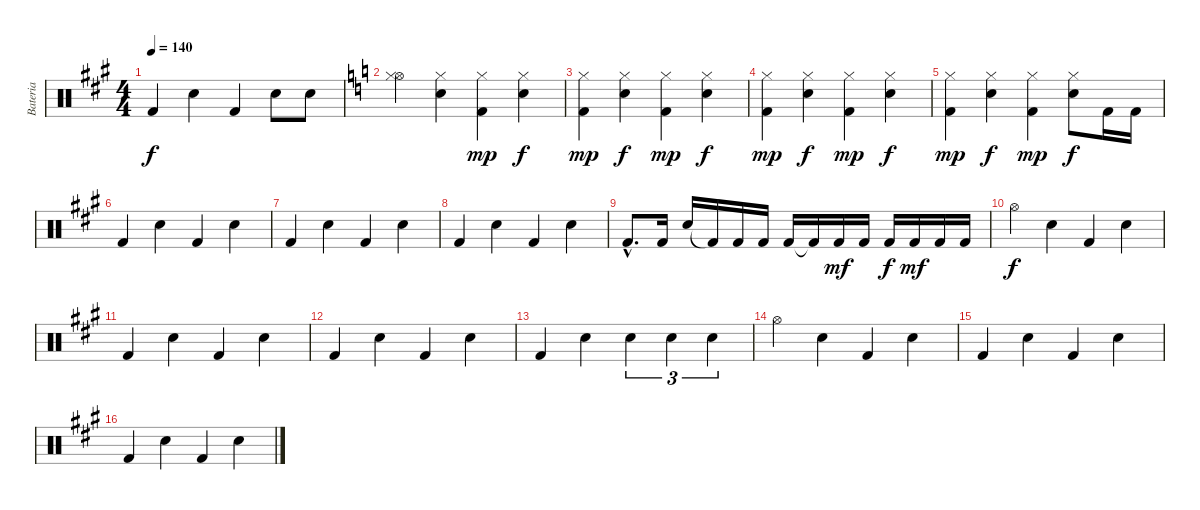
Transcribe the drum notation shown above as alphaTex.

\track ("Bateria" "Bateria") {instrument percussion}
\staff {score}
\articulation defaults
\ts (4 4)
\tempo 140
\clef neutral
\ks a "Kick (hit) 2".4{dy f} "Electric Snare (hit)".4 "Kick (hit) 2".4 "Electric Snare (hit)".8 "Electric Snare (hit)".8
|
\ks c
("Hi-Hat (open)" "Hi-Hat (closed)").4 ("Electric Snare (hit)" "Hi-Hat (closed)").4 ("Kick (hit) 2" "Hi-Hat (closed)").4{dy mp} ("Electric Snare (hit)" "Hi-Hat (closed)").4{dy f} |
("Kick (hit) 2" "Hi-Hat (closed)").4{dy mp} ("Electric Snare (hit)" "Hi-Hat (closed)").4{dy f} ("Kick (hit) 2" "Hi-Hat (closed)").4{dy mp} ("Electric Snare (hit)" "Hi-Hat (closed)").4{dy f} |
("Kick (hit) 2" "Hi-Hat (closed)").4{dy mp} ("Electric Snare (hit)" "Hi-Hat (closed)").4{dy f} ("Kick (hit) 2" "Hi-Hat (closed)").4{dy mp} ("Electric Snare (hit)" "Hi-Hat (closed)").4{dy f} |
("Kick (hit) 2" "Hi-Hat (closed)").4{dy mp} ("Electric Snare (hit)" "Hi-Hat (closed)").4{dy f} ("Kick (hit) 2" "Hi-Hat (closed)").4{dy mp} ("Electric Snare (hit)" "Hi-Hat (closed)").8{dy f} "Kick (hit) 2".16 "Kick (hit) 2".16 |
\ks a "Kick (hit) 2".4 "Electric Snare (hit)".4 "Kick (hit) 2".4 "Electric Snare (hit)".4
|
"Kick (hit) 2".4 "Electric Snare (hit)".4 "Kick (hit) 2".4 "Electric Snare (hit)".4 |
"Kick (hit) 2".4 "Electric Snare (hit)".4 "Kick (hit) 2".4 "Electric Snare (hit)".4 |
"Kick (hit) 2"{hac}.8{d} "Kick (hit) 2".16 "Electric Snare (hit)".16 "Kick (hit) 2"{t}.16 "Kick (hit) 2".16 "Kick (hit) 2".16 "Kick (hit) 2".16 "Kick (hit) 2"{t}.16 "Kick (hit) 2".16{dy mf} "Kick (hit) 2".16 "Kick (hit) 2".16{dy f} "Kick (hit) 2".16{dy mf} "Kick (hit) 2".16 "Kick (hit) 2".16 |
"Hi-Hat (open)".4{dy f} "Electric Snare (hit)".4 "Kick (hit) 2".4 "Electric Snare (hit)".4 |
"Kick (hit) 2".4 "Electric Snare (hit)".4 "Kick (hit) 2".4 "Electric Snare (hit)".4 |
"Kick (hit) 2".4 "Electric Snare (hit)".4 "Kick (hit) 2".4 "Electric Snare (hit)".4 |
"Kick (hit) 2".4 "Electric Snare (hit)".4 "Electric Snare (hit)".4{tu (3 2)} "Electric Snare (hit)".4{tu (3 2)} "Electric Snare (hit)".4{tu (3 2)} |
"Hi-Hat (open)".4 "Electric Snare (hit)".4 "Kick (hit) 2".4 "Electric Snare (hit)".4 |
"Kick (hit) 2".4 "Electric Snare (hit)".4 "Kick (hit) 2".4 "Electric Snare (hit)".4 |
"Kick (hit) 2".4 "Electric Snare (hit)".4 "Kick (hit) 2".4 "Electric Snare (hit)".4
